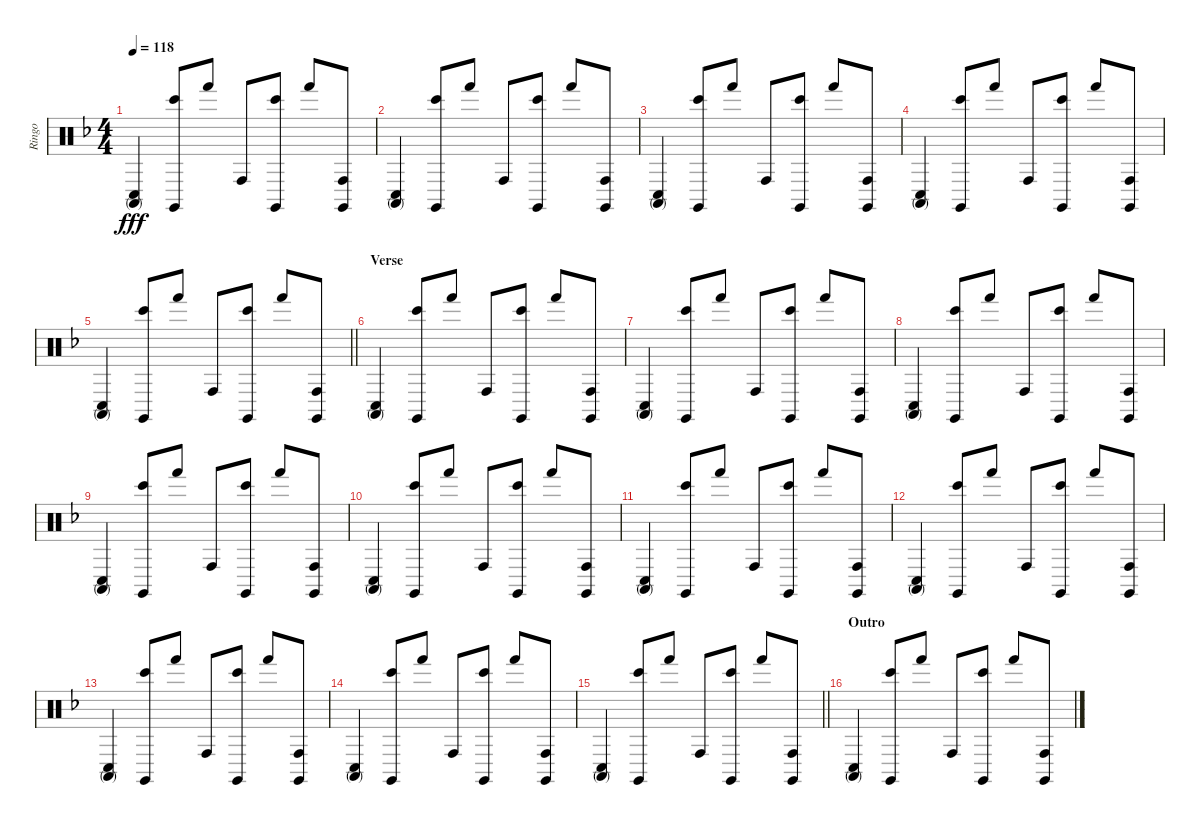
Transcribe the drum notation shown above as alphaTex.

\track ("Ringo" "Ringo") {instrument percussion}
\staff {score}
\articulation defaults
\ts (4 4)
\tempo 118
\clef neutral
\ks f
("Conga low (hit)" "Conga high (mute)").4{dy fff} ("Claves (hit)" "Bongo High (hit)").8 "Hand (hit)".8 "Conga high (hit)".8 ("Claves (hit)" "Bongo High (hit)").8 "Hand (hit)".8 ("Claves (hit)" "Conga high (hit)").8 |
("Conga low (hit)" "Conga high (mute)").4 ("Claves (hit)" "Bongo High (hit)").8 "Hand (hit)".8 "Conga high (hit)".8 ("Claves (hit)" "Bongo High (hit)").8 "Hand (hit)".8 ("Claves (hit)" "Conga high (hit)").8 |
("Conga low (hit)" "Conga high (mute)").4 ("Claves (hit)" "Bongo High (hit)").8 "Hand (hit)".8 "Conga high (hit)".8 ("Claves (hit)" "Bongo High (hit)").8 "Hand (hit)".8 ("Claves (hit)" "Conga high (hit)").8 |
("Conga low (hit)" "Conga high (mute)").4 ("Claves (hit)" "Bongo High (hit)").8 "Hand (hit)".8 "Conga high (hit)".8 ("Claves (hit)" "Bongo High (hit)").8 "Hand (hit)".8 ("Claves (hit)" "Conga high (hit)").8 |
\barLineRight lightlight
("Conga low (hit)" "Conga high (mute)").4 ("Claves (hit)" "Bongo High (hit)").8 "Hand (hit)".8 "Conga high (hit)".8 ("Claves (hit)" "Bongo High (hit)").8 "Hand (hit)".8 ("Claves (hit)" "Conga high (hit)").8 |
\section ("" "Verse")
("Conga low (hit)" "Conga high (mute)").4 ("Claves (hit)" "Bongo High (hit)").8 "Hand (hit)".8 "Conga high (hit)".8 ("Claves (hit)" "Bongo High (hit)").8 "Hand (hit)".8 ("Claves (hit)" "Conga high (hit)").8 |
("Conga low (hit)" "Conga high (mute)").4 ("Claves (hit)" "Bongo High (hit)").8 "Hand (hit)".8 "Conga high (hit)".8 ("Claves (hit)" "Bongo High (hit)").8 "Hand (hit)".8 ("Claves (hit)" "Conga high (hit)").8 |
("Conga low (hit)" "Conga high (mute)").4 ("Claves (hit)" "Bongo High (hit)").8 "Hand (hit)".8 "Conga high (hit)".8 ("Claves (hit)" "Bongo High (hit)").8 "Hand (hit)".8 ("Claves (hit)" "Conga high (hit)").8 |
("Conga low (hit)" "Conga high (mute)").4 ("Claves (hit)" "Bongo High (hit)").8 "Hand (hit)".8 "Conga high (hit)".8 ("Claves (hit)" "Bongo High (hit)").8 "Hand (hit)".8 ("Claves (hit)" "Conga high (hit)").8 |
("Conga low (hit)" "Conga high (mute)").4 ("Claves (hit)" "Bongo High (hit)").8 "Hand (hit)".8 "Conga high (hit)".8 ("Claves (hit)" "Bongo High (hit)").8 "Hand (hit)".8 ("Claves (hit)" "Conga high (hit)").8 |
("Conga low (hit)" "Conga high (mute)").4 ("Claves (hit)" "Bongo High (hit)").8 "Hand (hit)".8 "Conga high (hit)".8 ("Claves (hit)" "Bongo High (hit)").8 "Hand (hit)".8 ("Claves (hit)" "Conga high (hit)").8 |
("Conga low (hit)" "Conga high (mute)").4 ("Claves (hit)" "Bongo High (hit)").8 "Hand (hit)".8 "Conga high (hit)".8 ("Claves (hit)" "Bongo High (hit)").8 "Hand (hit)".8 ("Claves (hit)" "Conga high (hit)").8 |
("Conga low (hit)" "Conga high (mute)").4 ("Claves (hit)" "Bongo High (hit)").8 "Hand (hit)".8 "Conga high (hit)".8 ("Claves (hit)" "Bongo High (hit)").8 "Hand (hit)".8 ("Claves (hit)" "Conga high (hit)").8 |
("Conga low (hit)" "Conga high (mute)").4 ("Claves (hit)" "Bongo High (hit)").8 "Hand (hit)".8 "Conga high (hit)".8 ("Claves (hit)" "Bongo High (hit)").8 "Hand (hit)".8 ("Claves (hit)" "Conga high (hit)").8 |
\barLineRight lightlight
("Conga low (hit)" "Conga high (mute)").4 ("Claves (hit)" "Bongo High (hit)").8 "Hand (hit)".8 "Conga high (hit)".8 ("Claves (hit)" "Bongo High (hit)").8 "Hand (hit)".8 ("Claves (hit)" "Conga high (hit)").8 |
\section ("" "Outro")
("Conga low (hit)" "Conga high (mute)").4 ("Claves (hit)" "Bongo High (hit)").8 "Hand (hit)".8 "Conga high (hit)".8 ("Claves (hit)" "Bongo High (hit)").8 "Hand (hit)".8 ("Claves (hit)" "Conga high (hit)").8
